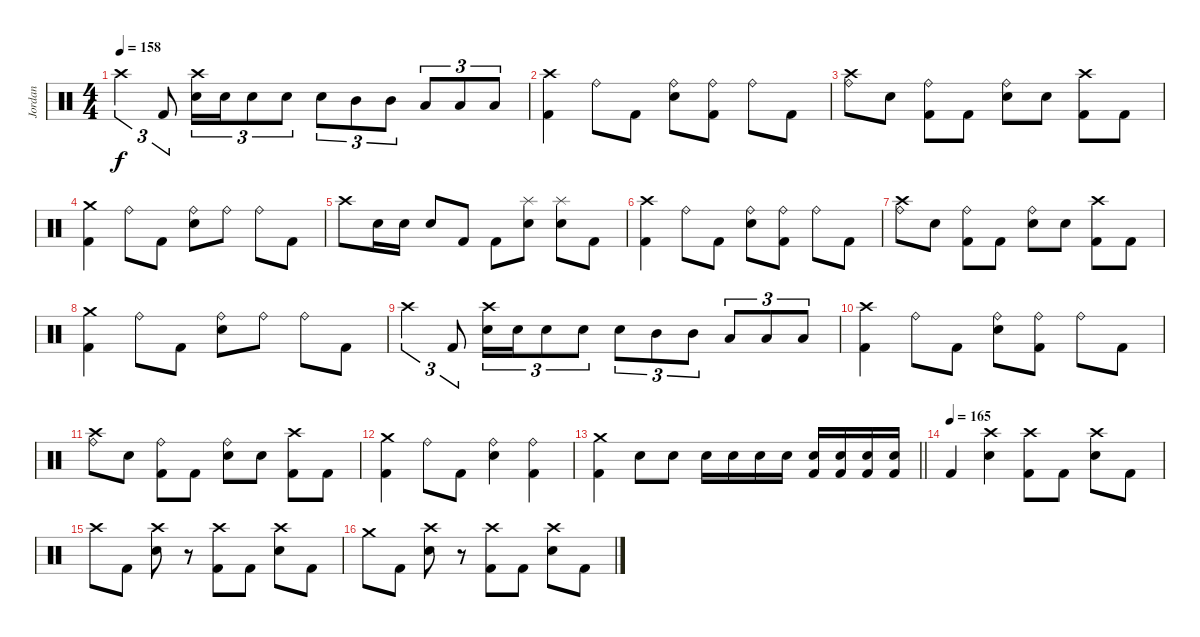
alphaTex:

\track ("Jordan" "Jordan") {instrument percussion}
\staff {score}
\articulation defaults
\ts (4 4)
\tempo 158
\clef neutral
\ks c "Crash high (hit)".4{tu (3 2) dy f} "Kick (hit) 2".8{tu (3 2)}
("Crash high (hit)" "Electric Snare (hit)").16{tu (3 2)} "Electric Snare (hit)".16{tu (3 2)} "Electric Snare (hit)".8{tu (3 2)} "Electric Snare (hit)".8{tu (3 2)} "Electric Snare (hit)".8{tu (3 2)} "Mid Tom (hit)".8{tu (3 2)} "Mid Tom (hit)".8{tu (3 2)} "Low Tom (hit)".8{tu (3 2)} "Low Tom (hit)".8{tu (3 2)} "Low Tom (hit)".8{tu (3 2)} |
("Crash high (hit)" "Kick (hit) 2").4 "Ride (bell)".8 "Kick (hit) 2".8 ("Ride (bell)" "Electric Snare (hit)").8 ("Ride (bell)" "Kick (hit) 2").8 "Ride (bell)".8 "Kick (hit) 2".8 |
("Ride (bell)" "Crash high (hit)").8 "Electric Snare (hit)".8 ("Ride (bell)" "Kick (hit) 2").8 "Kick (hit) 2".8 ("Ride (bell)" "Electric Snare (hit)").8 "Electric Snare (hit)".8 ("Crash high (hit)" "Kick (hit) 2").8 "Kick (hit) 2".8 |
("Crash medium (hit)" "Kick (hit) 2").4 "Ride (bell)".8 "Kick (hit) 2".8 ("Ride (bell)" "Electric Snare (hit)").8 "Ride (bell)".8 "Ride (bell)".8 "Kick (hit) 2".8 |
"Crash high (hit)".8 "Electric Snare (hit)".16 "Electric Snare (hit)".16 "Electric Snare (hit)".8 "Kick (hit) 2".8 "Kick (hit) 2".8 ("Splash (hit)" "Electric Snare (hit)").8 ("Splash (hit)" "Electric Snare (hit)").8 "Kick (hit) 2".8 |
("Crash high (hit)" "Kick (hit) 2").4 "Ride (bell)".8 "Kick (hit) 2".8 ("Ride (bell)" "Electric Snare (hit)").8 ("Ride (bell)" "Kick (hit) 2").8 "Ride (bell)".8 "Kick (hit) 2".8 |
("Ride (bell)" "Crash high (hit)").8 "Electric Snare (hit)".8 ("Ride (bell)" "Kick (hit) 2").8 "Kick (hit) 2".8 ("Ride (bell)" "Electric Snare (hit)").8 "Electric Snare (hit)".8 ("Crash high (hit)" "Kick (hit) 2").8 "Kick (hit) 2".8 |
("Crash medium (hit)" "Kick (hit) 2").4 "Ride (bell)".8 "Kick (hit) 2".8 ("Ride (bell)" "Electric Snare (hit)").8 "Ride (bell)".8 "Ride (bell)".8 "Kick (hit) 2".8 |
"Crash high (hit)".4{tu (3 2)} "Kick (hit) 2".8{tu (3 2)} ("Crash high (hit)" "Electric Snare (hit)").16{tu (3 2)} "Electric Snare (hit)".16{tu (3 2)} "Electric Snare (hit)".8{tu (3 2)} "Electric Snare (hit)".8{tu (3 2)} "Electric Snare (hit)".8{tu (3 2)} "Mid Tom (hit)".8{tu (3 2)} "Mid Tom (hit)".8{tu (3 2)} "Low Tom (hit)".8{tu (3 2)} "Low Tom (hit)".8{tu (3 2)} "Low Tom (hit)".8{tu (3 2)} |
("Crash high (hit)" "Kick (hit) 2").4 "Ride (bell)".8 "Kick (hit) 2".8 ("Ride (bell)" "Electric Snare (hit)").8 ("Ride (bell)" "Kick (hit) 2").8 "Ride (bell)".8 "Kick (hit) 2".8 |
("Ride (bell)" "Crash high (hit)").8 "Electric Snare (hit)".8 ("Ride (bell)" "Kick (hit) 2").8 "Kick (hit) 2".8 ("Ride (bell)" "Electric Snare (hit)").8 "Electric Snare (hit)".8 ("Crash high (hit)" "Kick (hit) 2").8 "Kick (hit) 2".8 |
("Crash medium (hit)" "Kick (hit) 2").4 "Ride (bell)".8 "Kick (hit) 2".8 ("Ride (bell)" "Electric Snare (hit)").4 ("Ride (bell)" "Kick (hit) 2").4 |
\barLineRight lightlight
("Crash medium (hit)" "Kick (hit) 2").4 "Electric Snare (hit)".8 "Electric Snare (hit)".8 "Electric Snare (hit)".16 "Electric Snare (hit)".16 "Electric Snare (hit)".16 "Electric Snare (hit)".16 ("Electric Snare (hit)" "Kick (hit) 2").16 ("Electric Snare (hit)" "Kick (hit) 2").16 ("Electric Snare (hit)" "Kick (hit) 2").16 ("Electric Snare (hit)" "Kick (hit) 2").16 |
\tempo (165)
"Kick (hit) 2".4 ("Crash high (hit)" "Electric Snare (hit)").4 ("Crash high (hit)" "Kick (hit) 2").8 "Kick (hit) 2".8 ("Crash high (hit)" "Electric Snare (hit)").8 "Kick (hit) 2".8 |
"Crash high (hit)".8 "Kick (hit) 2".8 ("Crash high (hit)" "Electric Snare (hit)").8 r.8 ("Crash high (hit)" "Kick (hit) 2").8 "Kick (hit) 2".8 ("Crash high (hit)" "Electric Snare (hit)").8 "Kick (hit) 2".8 |
"Crash medium (hit)".8 "Kick (hit) 2".8 ("Crash high (hit)" "Electric Snare (hit)").8 r.8 ("Crash high (hit)" "Kick (hit) 2").8 "Kick (hit) 2".8 ("Crash high (hit)" "Electric Snare (hit)").8 "Kick (hit) 2".8
